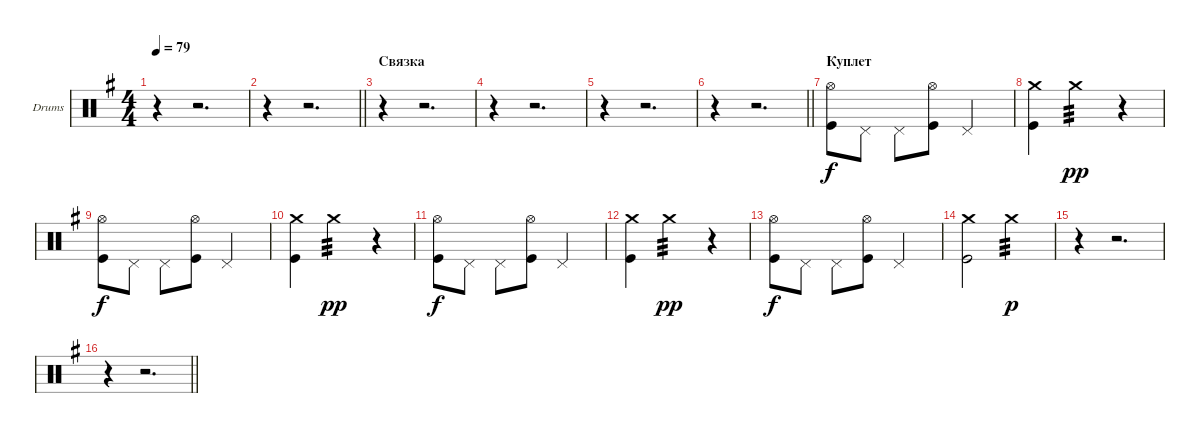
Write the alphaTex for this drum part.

\bracketExtendMode groupsimilarinstruments
\firstSystemTrackNameOrientation horizontal
\otherSystemsTrackNameOrientation horizontal
\track ("Александр Манякин" "Drums") {instrument percussion}
\staff {score}
\articulation defaults
\ts (4 4)
\tempo 79
\clef neutral
\ks eminor
r.4{dy ff} r.2{d} |
\barLineRight lightlight
r.4 r.2{d} |
\section ("" "Связка")
r.4 r.2{d} |
r.4 r.2{d} |
r.4 r.2{d} |
\barLineRight lightlight
r.4 r.2{d} |
\section ("" "Куплет")
("Kick (hit)" "Hi-Hat (open)").8{dy f} "Pedal Hi-Hat (hit)".8 "Pedal Hi-Hat (hit)".8 ("Kick (hit)" "Hi-Hat (open)").8 "Pedal Hi-Hat (hit)".2 |
("Kick (hit)" "Crash medium (hit)").4 "Crash medium (hit)".2{tp 3 dy pp} r.4 |
("Kick (hit)" "Hi-Hat (open)").8{dy f} "Pedal Hi-Hat (hit)".8 "Pedal Hi-Hat (hit)".8 ("Kick (hit)" "Hi-Hat (open)").8 "Pedal Hi-Hat (hit)".2 |
("Kick (hit)" "Crash medium (hit)").4 "Crash medium (hit)".2{tp 3 dy pp} r.4 |
("Kick (hit)" "Hi-Hat (open)").8{dy f} "Pedal Hi-Hat (hit)".8 "Pedal Hi-Hat (hit)".8 ("Kick (hit)" "Hi-Hat (open)").8 "Pedal Hi-Hat (hit)".2 |
("Kick (hit)" "Crash medium (hit)").4 "Crash medium (hit)".2{tp 3 dy pp} r.4 |
("Kick (hit)" "Hi-Hat (open)").8{dy f} "Pedal Hi-Hat (hit)".8 "Pedal Hi-Hat (hit)".8 ("Kick (hit)" "Hi-Hat (open)").8 "Pedal Hi-Hat (hit)".2 |
("Kick (hit)" "Crash medium (hit)").2 "Crash medium (hit)".2{tp 3 dy p} |
r.4 r.2{d} |
\barLineRight lightlight
r.4 r.2{d}
